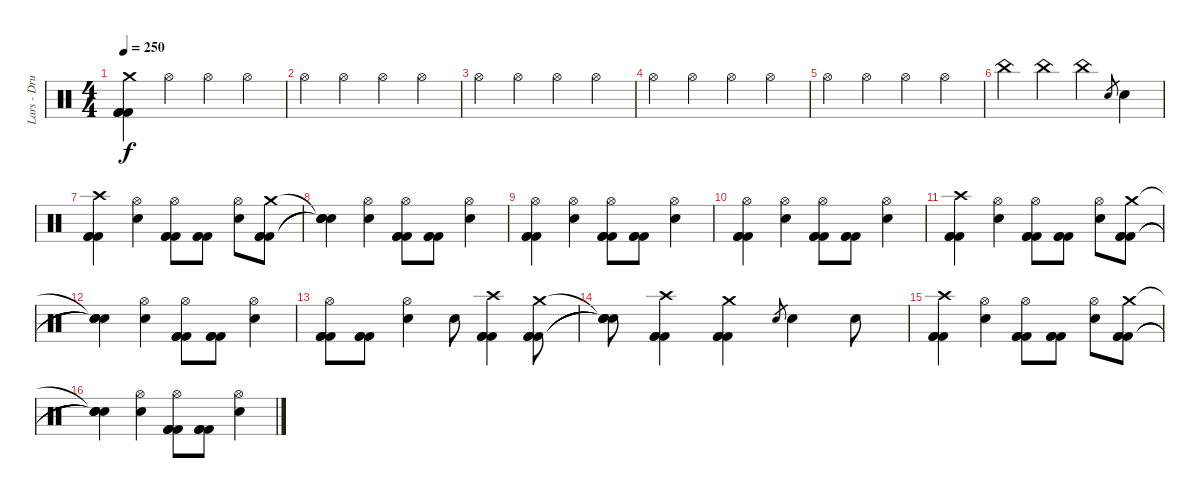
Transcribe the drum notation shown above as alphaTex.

\track ("Lars - Drums" "Lars - Dru") {instrument percussion}
\staff {score}
\articulation defaults
\ts (4 4)
\tempo 250
\clef neutral
\ks c
("Crash medium (hit)" "Kick (hit) 2" "Kick (hit) 2" "Kick (hit) 2").4{dy f} "Hi-Hat (open)".4 "Hi-Hat (open)".4 "Hi-Hat (open)".4 |
"Hi-Hat (open)".4 "Hi-Hat (open)".4 "Hi-Hat (open)".4 "Hi-Hat (open)".4 |
"Hi-Hat (open)".4 "Hi-Hat (open)".4 "Hi-Hat (open)".4 "Hi-Hat (open)".4 |
"Hi-Hat (open)".4 "Hi-Hat (open)".4 "Hi-Hat (open)".4 "Hi-Hat (open)".4 |
"Hi-Hat (open)".4 "Hi-Hat (open)".4 "Hi-Hat (open)".4 "Hi-Hat (open)".4 |
"China (hit)".4 "China (hit)".4 "China (hit)".4 "Snare (hit) 2".8{gr} "Snare (hit) 2".4 |
("Crash high (hit)" "Kick (hit) 2" "Kick (hit) 2" "Kick (hit) 2").4 ("Hi-Hat (open)" "Snare (hit) 2").4 ("Hi-Hat (open)" "Kick (hit) 2" "Kick (hit) 2" "Kick (hit) 2").8 ("Kick (hit) 2" "Kick (hit) 2" "Kick (hit) 2").8 ("Hi-Hat (open)" "Snare (hit) 2").8 ("Crash medium (hit)" "Kick (hit) 2" "Kick (hit) 2" "Kick (hit) 2").8 |
("Snare (hit)"{t} "Snare (hit)"{t} "Snare (hit)"{t} "Snare (hit)"{t}).4 ("Hi-Hat (open)" "Snare (hit) 2").4 ("Hi-Hat (open)" "Kick (hit) 2" "Kick (hit) 2" "Kick (hit) 2").8 ("Kick (hit) 2" "Kick (hit) 2" "Kick (hit) 2").8 ("Hi-Hat (open)" "Snare (hit) 2").4 |
("Hi-Hat (open)" "Kick (hit) 2" "Kick (hit) 2" "Kick (hit) 2").4 ("Hi-Hat (open)" "Snare (hit) 2").4 ("Hi-Hat (open)" "Kick (hit) 2" "Kick (hit) 2" "Kick (hit) 2").8 ("Kick (hit) 2" "Kick (hit) 2" "Kick (hit) 2").8 ("Hi-Hat (open)" "Snare (hit) 2").4 |
("Hi-Hat (open)" "Kick (hit) 2" "Kick (hit) 2" "Kick (hit) 2").4 ("Hi-Hat (open)" "Snare (hit) 2").4 ("Hi-Hat (open)" "Kick (hit) 2" "Kick (hit) 2" "Kick (hit) 2").8 ("Kick (hit) 2" "Kick (hit) 2" "Kick (hit) 2").8 ("Hi-Hat (open)" "Snare (hit) 2").4 |
("Crash high (hit)" "Kick (hit) 2" "Kick (hit) 2" "Kick (hit) 2").4 ("Hi-Hat (open)" "Snare (hit) 2").4 ("Hi-Hat (open)" "Kick (hit) 2" "Kick (hit) 2" "Kick (hit) 2").8 ("Kick (hit) 2" "Kick (hit) 2" "Kick (hit) 2").8 ("Hi-Hat (open)" "Snare (hit) 2").8 ("Crash medium (hit)" "Kick (hit) 2" "Kick (hit) 2" "Kick (hit) 2").8 |
("Snare (hit)"{t} "Snare (hit)"{t} "Snare (hit)"{t} "Snare (hit)"{t}).4 ("Hi-Hat (open)" "Snare (hit) 2").4 ("Hi-Hat (open)" "Kick (hit) 2" "Kick (hit) 2" "Kick (hit) 2").8 ("Kick (hit) 2" "Kick (hit) 2" "Kick (hit) 2").8 ("Hi-Hat (open)" "Snare (hit) 2").4 |
("Hi-Hat (open)" "Kick (hit) 2" "Kick (hit) 2" "Kick (hit) 2").8 ("Kick (hit) 2" "Kick (hit) 2" "Kick (hit) 2").8 ("Hi-Hat (open)" "Snare (hit) 2").4 "Snare (hit) 2".8 ("Crash high (hit)" "Kick (hit) 2" "Kick (hit) 2" "Kick (hit) 2").4 ("Crash medium (hit)" "Kick (hit) 2" "Kick (hit) 2" "Kick (hit) 2").8 |
("Snare (hit)"{t} "Snare (hit)"{t} "Snare (hit)"{t} "Snare (hit)"{t}).8 ("Crash high (hit)" "Kick (hit) 2" "Kick (hit) 2" "Kick (hit) 2").4 ("Crash medium (hit)" "Kick (hit) 2" "Kick (hit) 2" "Kick (hit) 2").4 "Snare (hit) 2".8{gr} "Snare (hit) 2".4 "Snare (hit) 2".8 |
("Crash high (hit)" "Kick (hit) 2" "Kick (hit) 2" "Kick (hit) 2").4 ("Hi-Hat (open)" "Snare (hit) 2").4 ("Hi-Hat (open)" "Kick (hit) 2" "Kick (hit) 2" "Kick (hit) 2").8 ("Kick (hit) 2" "Kick (hit) 2" "Kick (hit) 2").8 ("Hi-Hat (open)" "Snare (hit) 2").8 ("Crash medium (hit)" "Kick (hit) 2" "Kick (hit) 2" "Kick (hit) 2").8 |
("Snare (hit)"{t} "Snare (hit)"{t} "Snare (hit)"{t} "Snare (hit)"{t}).4 ("Hi-Hat (open)" "Snare (hit) 2").4 ("Hi-Hat (open)" "Kick (hit) 2" "Kick (hit) 2" "Kick (hit) 2").8 ("Kick (hit) 2" "Kick (hit) 2" "Kick (hit) 2").8 ("Hi-Hat (open)" "Snare (hit) 2").4
